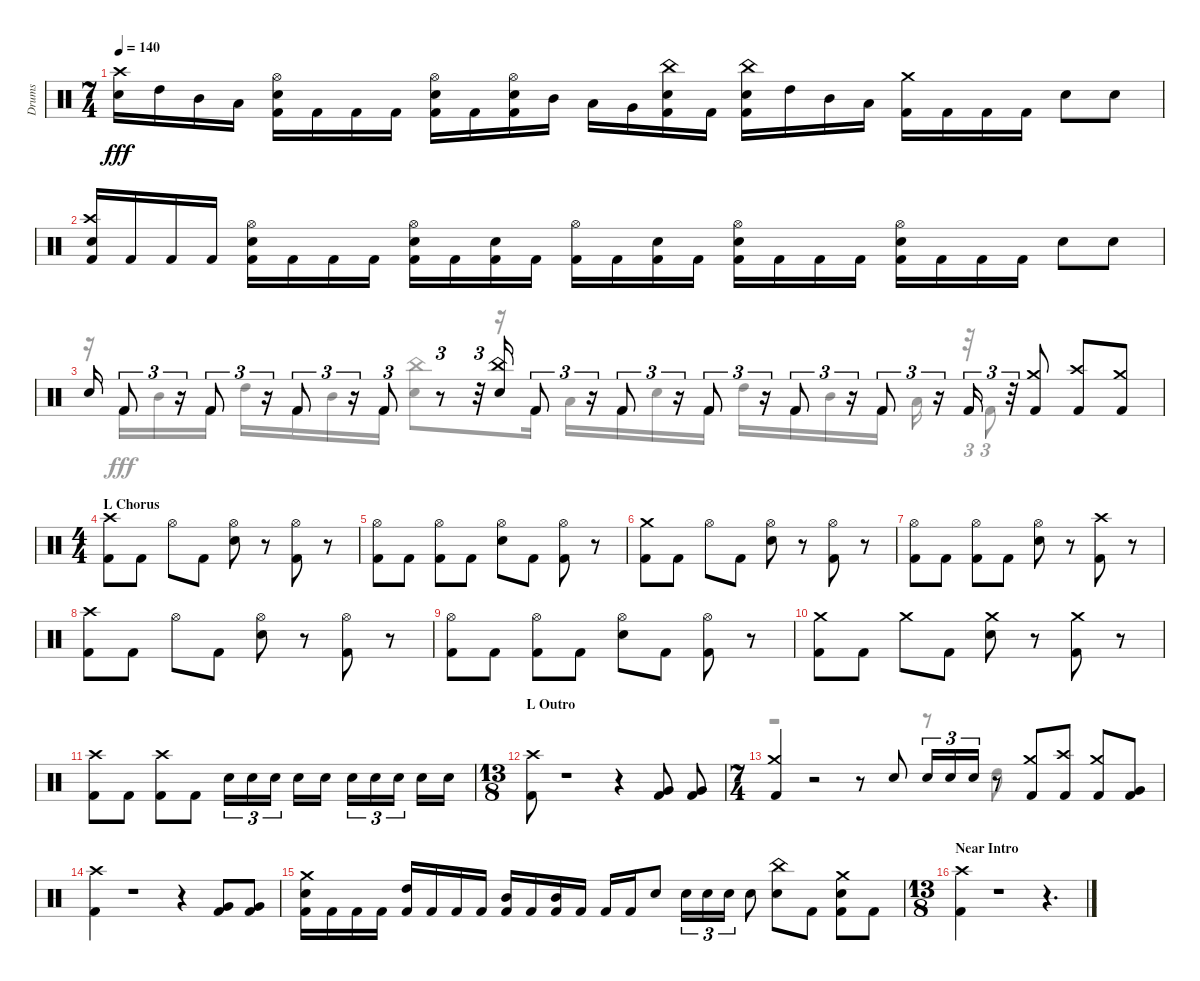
\track ("Drums" "Drums") {instrument percussion}
\staff {score}
\articulation defaults
\voice
\ts (7 4)
\tempo 140
\clef neutral
\ks aminor
("Snare (hit) 2" "Crash high (hit)").16{dy fff} "High Tom (hit)".16 "Mid Tom (hit)".16 "Low Tom (hit)".16 ("Kick (hit) 2" "Snare (hit) 2" "Hi-Hat (open)").16 "Kick (hit) 2".16 "Kick (hit) 2".16 "Kick (hit) 2".16 ("Hi-Hat (open)" "Snare (hit) 2" "Kick (hit) 2").16 "Kick (hit) 2".16 ("Kick (hit) 2" "Snare (hit) 2" "Hi-Hat (open)").16 "Mid Tom (hit)".16 "Low Tom (hit)".16 "Very Low Tom (hit)".16 ("Kick (hit) 2" "Snare (hit) 2" "China (hit)").16 "Kick (hit) 2".16 ("China (hit)" "Snare (hit) 2" "Kick (hit) 2").16 "High Tom (hit)".16 "Mid Tom (hit)".16 "Low Tom (hit)".16 ("Crash medium (hit)" "Kick (hit) 2").16 "Kick (hit) 2".16 "Kick (hit) 2".16 "Kick (hit) 2".16 "Snare (hit) 2".8 "Snare (hit) 2".8 |
("Crash high (hit)" "Kick (hit) 2" "Snare (hit) 2").16 "Kick (hit) 2".16 "Kick (hit) 2".16 "Kick (hit) 2".16 ("Snare (hit) 2" "Hi-Hat (open)" "Kick (hit) 2").16 "Kick (hit) 2".16 "Kick (hit) 2".16 "Kick (hit) 2".16 ("Snare (hit) 2" "Hi-Hat (open)" "Kick (hit) 2").16 "Kick (hit) 2".16 ("Kick (hit) 2" "Snare (hit) 2").16 "Kick (hit) 2".16 ("Kick (hit) 2" "Hi-Hat (open)").16 "Kick (hit) 2".16 ("Kick (hit) 2" "Snare (hit) 2").16 "Kick (hit) 2".16 ("Hi-Hat (open)" "Kick (hit) 2" "Snare (hit) 2").16 "Kick (hit) 2".16 "Kick (hit) 2".16 "Kick (hit) 2".16 ("Hi-Hat (open)" "Kick (hit) 2" "Snare (hit) 2").16 "Kick (hit) 2".16 "Kick (hit) 2".16 "Kick (hit) 2".16 "Snare (hit) 2".8 "Snare (hit) 2".8 |
"Snare (hit) 2".16 "Kick (hit) 2".8{tu (3 2)} r.16{tu (3 2)} "Kick (hit) 2".8{tu (3 2)} r.16{tu (3 2)} "Kick (hit) 2".8{tu (3 2)} r.16{tu (3 2)} "Kick (hit) 2".8{tu (3 2)} r.8{tu (3 2)} r.32{tu (3 2)} ("Snare (hit) 2" "China (hit)").16 "Kick (hit) 2".8{tu (3 2)} r.16{tu (3 2)} "Kick (hit) 2".8{tu (3 2)} r.16{tu (3 2)} "Kick (hit) 2".8{tu (3 2)} r.16{tu (3 2)} "Kick (hit) 2".8{tu (3 2)} r.16{tu (3 2)} "Kick (hit) 2".8{tu (3 2)} r.16{tu (3 2)} "Kick (hit) 2".16{tu (3 2)} r.32{tu (3 2)} ("Kick (hit) 2" "Crash medium (hit)").8 ("Crash high (hit)" "Kick (hit) 2").8 ("Kick (hit) 2" "Crash medium (hit)").8 |
\ts (4 4)
\section ("" "L Chorus")
("Kick (hit) 2" "Crash high (hit)").8 "Kick (hit) 2".8 "Hi-Hat (open)".8 "Kick (hit) 2".8 ("Snare (hit) 2" "Hi-Hat (open)").8 r.8 ("Kick (hit) 2" "Hi-Hat (open)").8 r.8 |
("Kick (hit) 2" "Hi-Hat (open)").8 "Kick (hit) 2".8 ("Hi-Hat (open)" "Kick (hit) 2").8 "Kick (hit) 2".8 ("Snare (hit) 2" "Hi-Hat (open)").8 "Kick (hit) 2".8 ("Kick (hit) 2" "Hi-Hat (open)").8 r.8 |
("Crash medium (hit)" "Kick (hit) 2").8 "Kick (hit) 2".8 "Hi-Hat (open)".8 "Kick (hit) 2".8 ("Snare (hit) 2" "Hi-Hat (open)").8 r.8 ("Kick (hit) 2" "Hi-Hat (open)").8 r.8 |
("Hi-Hat (open)" "Kick (hit) 2").8 "Kick (hit) 2".8 ("Kick (hit) 2" "Hi-Hat (open)").8 "Kick (hit) 2".8 ("Snare (hit) 2" "Hi-Hat (open)").8 r.8 ("Kick (hit) 2" "Crash high (hit)").8 r.8 |
("Kick (hit) 2" "Crash high (hit)").8 "Kick (hit) 2".8 "Hi-Hat (open)".8 "Kick (hit) 2".8 ("Hi-Hat (open)" "Snare (hit) 2").8 r.8 ("Kick (hit) 2" "Hi-Hat (open)").8 r.8 |
("Kick (hit) 2" "Hi-Hat (open)").8 "Kick (hit) 2".8 ("Kick (hit) 2" "Hi-Hat (open)").8 "Kick (hit) 2".8 ("Hi-Hat (open)" "Snare (hit) 2").8 "Kick (hit) 2".8 ("Kick (hit) 2" "Hi-Hat (open)").8 r.8 |
("Crash medium (hit)" "Kick (hit) 2").8 "Kick (hit) 2".8 "Crash medium (hit)".8 "Kick (hit) 2".8 ("Crash medium (hit)" "Snare (hit) 2").8 r.8 ("Crash medium (hit)" "Kick (hit) 2").8 r.8 |
("Crash high (hit)" "Kick (hit) 2").8 "Kick (hit) 2".8 ("Kick (hit) 2" "Crash high (hit)").8 "Kick (hit) 2".8 "Snare (hit) 2".16{tu (3 2)} "Snare (hit) 2".16{tu (3 2)} "Snare (hit) 2".16{tu (3 2)} "Snare (hit) 2".16 "Snare (hit) 2".16 "Snare (hit) 2".16{tu (3 2)} "Snare (hit) 2".16{tu (3 2)} "Snare (hit) 2".16{tu (3 2)} "Snare (hit) 2".16 "Snare (hit) 2".16 |
\ts (13 8)
\section ("" "L Outro")
("Crash high (hit)" "Kick (hit) 2").8 r.1 r.4 ("Kick (hit) 2" "Very Low Tom (hit)").8 ("Kick (hit) 2" "Very Low Tom (hit)").8 |
\ts (7 4)
("Crash medium (hit)" "Kick (hit) 2").4 r.2 r.8 "Snare (hit) 2".8 "Snare (hit) 2".16{tu (3 2)} "Snare (hit) 2".16{tu (3 2)} "Snare (hit) 2".16{tu (3 2)} r.8 ("Crash medium (hit)" "Kick (hit) 2").8 ("Crash high (hit)" "Kick (hit) 2").8 ("Crash medium (hit)" "Kick (hit) 2").8 ("Kick (hit) 2" "Very Low Tom (hit)").8 |
("Kick (hit) 2" "Crash high (hit)").4 r.1 r.4 ("Very Low Tom (hit)" "Kick (hit) 2").8 ("Very Low Tom (hit)" "Kick (hit) 2").8 |
("Crash medium (hit)" "Snare (hit) 2" "Kick (hit) 2").16 "Kick (hit) 2".16 "Kick (hit) 2".16 "Kick (hit) 2".16 ("Kick (hit) 2" "High Tom (hit)").16 "Kick (hit) 2".16 "Kick (hit) 2".16 "Kick (hit) 2".16 ("Mid Tom (hit)" "Kick (hit) 2").16 "Kick (hit) 2".16 ("Kick (hit) 2" "Mid Tom (hit)").16 "Kick (hit) 2".16 "Kick (hit) 2".16 "Kick (hit) 2".16 "Snare (hit) 2".8 "Snare (hit) 2".16{tu (3 2)} "Snare (hit) 2".16{tu (3 2)} "Snare (hit) 2".16{tu (3 2)} "Snare (hit) 2".8 ("China (hit)" "Snare (hit) 2").8 "Kick (hit) 2".8 ("Snare (hit) 2" "Crash medium (hit)" "Kick (hit) 2").8 "Kick (hit) 2".8 |
\ts (13 8)
\section ("" "Near Intro")
("Kick (hit) 2" "Crash high (hit)").4 r.1 r.4{d}
\voice
\clef neutral
\ottava regular
\simile none
\ks aminor
|
|
r.16 "Kick (hit) 2".16 "Mid Tom (hit)".16 "Kick (hit) 2".16 "High Tom (hit)".16 "Kick (hit) 2".16 "Mid Tom (hit)".16 "Kick (hit) 2".16 ("Snare (hit) 2" "China (hit)").8 r.16 "Kick (hit) 2".16 "Low Tom (hit)".16 "Kick (hit) 2".16 "Snare (hit) 2".16 "Kick (hit) 2".16 "High Tom (hit)".16 "Kick (hit) 2".16 "Mid Tom (hit)".16 "Kick (hit) 2".16 "Low Tom (hit)".16 r.32{tu (3 2)} "Kick (hit) 2".8{tu (3 2)} |
|
|
|
|
|
|
|
|
|
r.1 r.8 "High Tom (hit)".8 |
|
|
